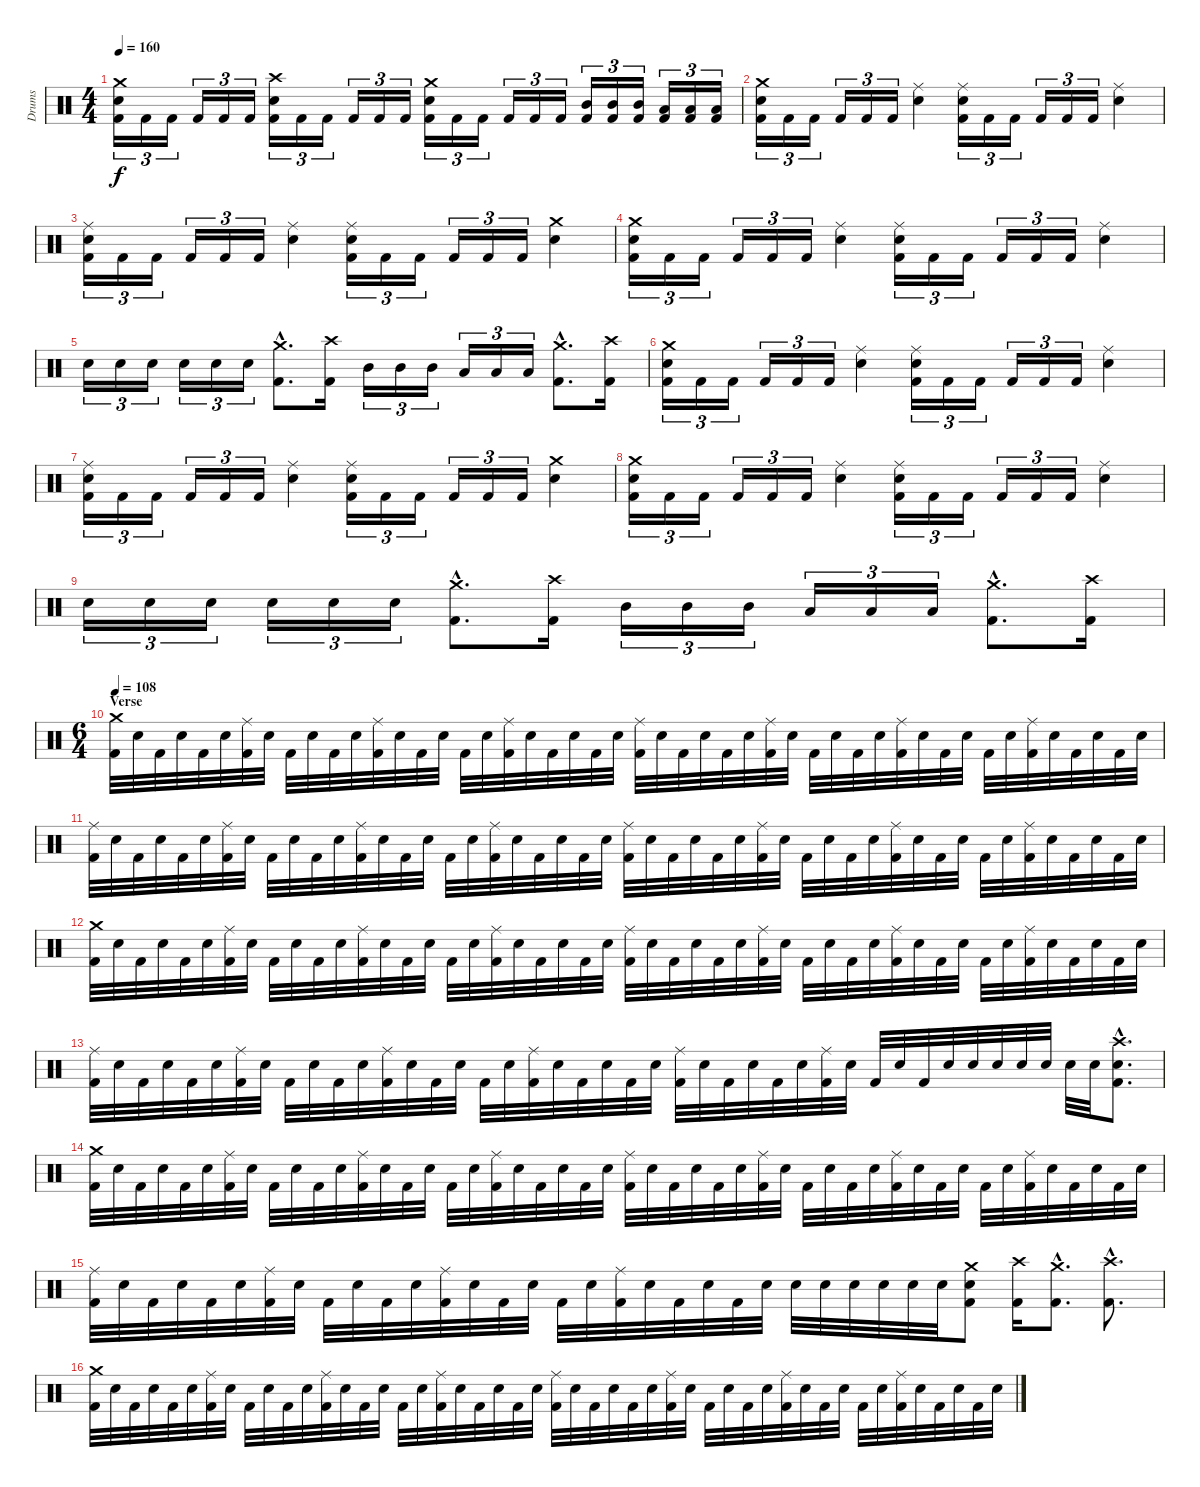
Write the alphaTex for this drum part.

\track ("Drums" "Drums") {instrument percussion}
\staff {score}
\articulation defaults
\ts (4 4)
\tempo 160
\clef neutral
\ks c
("Crash medium (hit)" "Electric Snare (hit)" "Kick (hit) 2").16{tu (3 2) dy f} "Kick (hit) 2".16{tu (3 2)} "Kick (hit) 2".16{tu (3 2)} "Kick (hit) 2".16{tu (3 2)} "Kick (hit) 2".16{tu (3 2)} "Kick (hit) 2".16{tu (3 2)} ("Crash high (hit)" "Electric Snare (hit)" "Kick (hit) 2").16{tu (3 2)} "Kick (hit) 2".16{tu (3 2)} "Kick (hit) 2".16{tu (3 2)} "Kick (hit) 2".16{tu (3 2)} "Kick (hit) 2".16{tu (3 2)} "Kick (hit) 2".16{tu (3 2)} ("Crash medium (hit)" "Electric Snare (hit)" "Kick (hit) 2").16{tu (3 2)} "Kick (hit) 2".16{tu (3 2)} "Kick (hit) 2".16{tu (3 2)} "Kick (hit) 2".16{tu (3 2)} "Kick (hit) 2".16{tu (3 2)} "Kick (hit) 2".16{tu (3 2)} ("Mid Tom (hit)" "Kick (hit) 2").16{tu (3 2)} ("Mid Tom (hit)" "Kick (hit) 2").16{tu (3 2)} ("Mid Tom (hit)" "Kick (hit) 2").16{tu (3 2)} ("Low Tom (hit)" "Kick (hit) 2").16{tu (3 2)} ("Low Tom (hit)" "Kick (hit) 2").16{tu (3 2)} ("Low Tom (hit)" "Kick (hit) 2").16{tu (3 2)} |
("Crash medium (hit)" "Electric Snare (hit)" "Kick (hit) 2").16{tu (3 2)} "Kick (hit) 2".16{tu (3 2)} "Kick (hit) 2".16{tu (3 2)} "Kick (hit) 2".16{tu (3 2)} "Kick (hit) 2".16{tu (3 2)} "Kick (hit) 2".16{tu (3 2)} ("Ride (middle)" "Electric Snare (hit)").4 ("Ride (middle)" "Electric Snare (hit)" "Kick (hit) 2").16{tu (3 2)} "Kick (hit) 2".16{tu (3 2)} "Kick (hit) 2".16{tu (3 2)} "Kick (hit) 2".16{tu (3 2)} "Kick (hit) 2".16{tu (3 2)} "Kick (hit) 2".16{tu (3 2)} ("Ride (middle)" "Electric Snare (hit)").4 |
("Ride (middle)" "Electric Snare (hit)" "Kick (hit) 2").16{tu (3 2)} "Kick (hit) 2".16{tu (3 2)} "Kick (hit) 2".16{tu (3 2)} "Kick (hit) 2".16{tu (3 2)} "Kick (hit) 2".16{tu (3 2)} "Kick (hit) 2".16{tu (3 2)} ("Ride (middle)" "Electric Snare (hit)").4 ("Ride (middle)" "Electric Snare (hit)" "Kick (hit) 2").16{tu (3 2)} "Kick (hit) 2".16{tu (3 2)} "Kick (hit) 2".16{tu (3 2)} "Kick (hit) 2".16{tu (3 2)} "Kick (hit) 2".16{tu (3 2)} "Kick (hit) 2".16{tu (3 2)} ("Crash medium (hit)" "Electric Snare (hit)").4 |
("Crash medium (hit)" "Electric Snare (hit)" "Kick (hit) 2").16{tu (3 2)} "Kick (hit) 2".16{tu (3 2)} "Kick (hit) 2".16{tu (3 2)} "Kick (hit) 2".16{tu (3 2)} "Kick (hit) 2".16{tu (3 2)} "Kick (hit) 2".16{tu (3 2)} ("Ride (middle)" "Electric Snare (hit)").4 ("Ride (middle)" "Electric Snare (hit)" "Kick (hit) 2").16{tu (3 2)} "Kick (hit) 2".16{tu (3 2)} "Kick (hit) 2".16{tu (3 2)} "Kick (hit) 2".16{tu (3 2)} "Kick (hit) 2".16{tu (3 2)} "Kick (hit) 2".16{tu (3 2)} ("Ride (middle)" "Electric Snare (hit)").4 |
"Electric Snare (hit)".16{tu (3 2)} "Electric Snare (hit)".16{tu (3 2)} "Electric Snare (hit)".16{tu (3 2)} "Electric Snare (hit)".16{tu (3 2)} "Electric Snare (hit)".16{tu (3 2)} "Electric Snare (hit)".16{tu (3 2)} ("Crash medium (hit)"{hac} "Kick (hit) 2"{hac}).8{d} ("Crash high (hit)" "Kick (hit) 2").16 "Mid Tom (hit)".16{tu (3 2)} "Mid Tom (hit)".16{tu (3 2)} "Mid Tom (hit)".16{tu (3 2)} "Low Tom (hit)".16{tu (3 2)} "Low Tom (hit)".16{tu (3 2)} "Low Tom (hit)".16{tu (3 2)} ("Crash medium (hit)"{hac} "Kick (hit) 2"{hac}).8{d} ("Crash high (hit)" "Kick (hit) 2").16 |
("Crash medium (hit)" "Electric Snare (hit)" "Kick (hit) 2").16{tu (3 2)} "Kick (hit) 2".16{tu (3 2)} "Kick (hit) 2".16{tu (3 2)} "Kick (hit) 2".16{tu (3 2)} "Kick (hit) 2".16{tu (3 2)} "Kick (hit) 2".16{tu (3 2)} ("Ride (middle)" "Electric Snare (hit)").4 ("Ride (middle)" "Electric Snare (hit)" "Kick (hit) 2").16{tu (3 2)} "Kick (hit) 2".16{tu (3 2)} "Kick (hit) 2".16{tu (3 2)} "Kick (hit) 2".16{tu (3 2)} "Kick (hit) 2".16{tu (3 2)} "Kick (hit) 2".16{tu (3 2)} ("Ride (middle)" "Electric Snare (hit)").4 |
("Ride (middle)" "Electric Snare (hit)" "Kick (hit) 2").16{tu (3 2)} "Kick (hit) 2".16{tu (3 2)} "Kick (hit) 2".16{tu (3 2)} "Kick (hit) 2".16{tu (3 2)} "Kick (hit) 2".16{tu (3 2)} "Kick (hit) 2".16{tu (3 2)} ("Ride (middle)" "Electric Snare (hit)").4 ("Ride (middle)" "Electric Snare (hit)" "Kick (hit) 2").16{tu (3 2)} "Kick (hit) 2".16{tu (3 2)} "Kick (hit) 2".16{tu (3 2)} "Kick (hit) 2".16{tu (3 2)} "Kick (hit) 2".16{tu (3 2)} "Kick (hit) 2".16{tu (3 2)} ("Crash medium (hit)" "Electric Snare (hit)").4 |
("Crash medium (hit)" "Electric Snare (hit)" "Kick (hit) 2").16{tu (3 2)} "Kick (hit) 2".16{tu (3 2)} "Kick (hit) 2".16{tu (3 2)} "Kick (hit) 2".16{tu (3 2)} "Kick (hit) 2".16{tu (3 2)} "Kick (hit) 2".16{tu (3 2)} ("Ride (middle)" "Electric Snare (hit)").4 ("Ride (middle)" "Electric Snare (hit)" "Kick (hit) 2").16{tu (3 2)} "Kick (hit) 2".16{tu (3 2)} "Kick (hit) 2".16{tu (3 2)} "Kick (hit) 2".16{tu (3 2)} "Kick (hit) 2".16{tu (3 2)} "Kick (hit) 2".16{tu (3 2)} ("Ride (middle)" "Electric Snare (hit)").4 |
"Electric Snare (hit)".16{tu (3 2)} "Electric Snare (hit)".16{tu (3 2)} "Electric Snare (hit)".16{tu (3 2)} "Electric Snare (hit)".16{tu (3 2)} "Electric Snare (hit)".16{tu (3 2)} "Electric Snare (hit)".16{tu (3 2)} ("Crash medium (hit)"{hac} "Kick (hit) 2"{hac}).8{d} ("Crash high (hit)" "Kick (hit) 2").16 "Mid Tom (hit)".16{tu (3 2)} "Mid Tom (hit)".16{tu (3 2)} "Mid Tom (hit)".16{tu (3 2)} "Low Tom (hit)".16{tu (3 2)} "Low Tom (hit)".16{tu (3 2)} "Low Tom (hit)".16{tu (3 2)} ("Crash medium (hit)"{hac} "Kick (hit) 2"{hac}).8{d} ("Crash high (hit)" "Kick (hit) 2").16 |
\ts (6 4)
\section ("" "Verse")
\tempo 108
("Crash medium (hit)" "Kick (hit) 2").32 "Electric Snare (hit)".32 "Kick (hit) 2".32 "Electric Snare (hit)".32 "Kick (hit) 2".32 "Electric Snare (hit)".32 ("Ride (middle)" "Kick (hit) 2").32 "Electric Snare (hit)".32 "Kick (hit) 2".32 "Electric Snare (hit)".32 "Kick (hit) 2".32 "Electric Snare (hit)".32 ("Ride (middle)" "Kick (hit) 2").32 "Electric Snare (hit)".32 "Kick (hit) 2".32 "Electric Snare (hit)".32 "Kick (hit) 2".32 "Electric Snare (hit)".32 ("Ride (middle)" "Kick (hit) 2").32 "Electric Snare (hit)".32 "Kick (hit) 2".32 "Electric Snare (hit)".32 "Kick (hit) 2".32 "Electric Snare (hit)".32 ("Ride (middle)" "Kick (hit) 2").32 "Electric Snare (hit)".32 "Kick (hit) 2".32 "Electric Snare (hit)".32 "Kick (hit) 2".32 "Electric Snare (hit)".32 ("Ride (middle)" "Kick (hit) 2").32 "Electric Snare (hit)".32 "Kick (hit) 2".32 "Electric Snare (hit)".32 "Kick (hit) 2".32 "Electric Snare (hit)".32 ("Ride (middle)" "Kick (hit) 2").32 "Electric Snare (hit)".32 "Kick (hit) 2".32 "Electric Snare (hit)".32 "Kick (hit) 2".32 "Electric Snare (hit)".32 ("Ride (middle)" "Kick (hit) 2").32 "Electric Snare (hit)".32 "Kick (hit) 2".32 "Electric Snare (hit)".32 "Kick (hit) 2".32 "Electric Snare (hit)".32 |
("Ride (middle)" "Kick (hit) 2").32 "Electric Snare (hit)".32 "Kick (hit) 2".32 "Electric Snare (hit)".32 "Kick (hit) 2".32 "Electric Snare (hit)".32 ("Ride (middle)" "Kick (hit) 2").32 "Electric Snare (hit)".32 "Kick (hit) 2".32 "Electric Snare (hit)".32 "Kick (hit) 2".32 "Electric Snare (hit)".32 ("Ride (middle)" "Kick (hit) 2").32 "Electric Snare (hit)".32 "Kick (hit) 2".32 "Electric Snare (hit)".32 "Kick (hit) 2".32 "Electric Snare (hit)".32 ("Ride (middle)" "Kick (hit) 2").32 "Electric Snare (hit)".32 "Kick (hit) 2".32 "Electric Snare (hit)".32 "Kick (hit) 2".32 "Electric Snare (hit)".32 ("Ride (middle)" "Kick (hit) 2").32 "Electric Snare (hit)".32 "Kick (hit) 2".32 "Electric Snare (hit)".32 "Kick (hit) 2".32 "Electric Snare (hit)".32 ("Ride (middle)" "Kick (hit) 2").32 "Electric Snare (hit)".32 "Kick (hit) 2".32 "Electric Snare (hit)".32 "Kick (hit) 2".32 "Electric Snare (hit)".32 ("Ride (middle)" "Kick (hit) 2").32 "Electric Snare (hit)".32 "Kick (hit) 2".32 "Electric Snare (hit)".32 "Kick (hit) 2".32 "Electric Snare (hit)".32 ("Ride (middle)" "Kick (hit) 2").32 "Electric Snare (hit)".32 "Kick (hit) 2".32 "Electric Snare (hit)".32 "Kick (hit) 2".32 "Electric Snare (hit)".32 |
("Crash medium (hit)" "Kick (hit) 2").32 "Electric Snare (hit)".32 "Kick (hit) 2".32 "Electric Snare (hit)".32 "Kick (hit) 2".32 "Electric Snare (hit)".32 ("Ride (middle)" "Kick (hit) 2").32 "Electric Snare (hit)".32 "Kick (hit) 2".32 "Electric Snare (hit)".32 "Kick (hit) 2".32 "Electric Snare (hit)".32 ("Ride (middle)" "Kick (hit) 2").32 "Electric Snare (hit)".32 "Kick (hit) 2".32 "Electric Snare (hit)".32 "Kick (hit) 2".32 "Electric Snare (hit)".32 ("Ride (middle)" "Kick (hit) 2").32 "Electric Snare (hit)".32 "Kick (hit) 2".32 "Electric Snare (hit)".32 "Kick (hit) 2".32 "Electric Snare (hit)".32 ("Ride (middle)" "Kick (hit) 2").32 "Electric Snare (hit)".32 "Kick (hit) 2".32 "Electric Snare (hit)".32 "Kick (hit) 2".32 "Electric Snare (hit)".32 ("Ride (middle)" "Kick (hit) 2").32 "Electric Snare (hit)".32 "Kick (hit) 2".32 "Electric Snare (hit)".32 "Kick (hit) 2".32 "Electric Snare (hit)".32 ("Ride (middle)" "Kick (hit) 2").32 "Electric Snare (hit)".32 "Kick (hit) 2".32 "Electric Snare (hit)".32 "Kick (hit) 2".32 "Electric Snare (hit)".32 ("Ride (middle)" "Kick (hit) 2").32 "Electric Snare (hit)".32 "Kick (hit) 2".32 "Electric Snare (hit)".32 "Kick (hit) 2".32 "Electric Snare (hit)".32 |
("Ride (middle)" "Kick (hit) 2").32 "Electric Snare (hit)".32 "Kick (hit) 2".32 "Electric Snare (hit)".32 "Kick (hit) 2".32 "Electric Snare (hit)".32 ("Ride (middle)" "Kick (hit) 2").32 "Electric Snare (hit)".32 "Kick (hit) 2".32 "Electric Snare (hit)".32 "Kick (hit) 2".32 "Electric Snare (hit)".32 ("Ride (middle)" "Kick (hit) 2").32 "Electric Snare (hit)".32 "Kick (hit) 2".32 "Electric Snare (hit)".32 "Kick (hit) 2".32 "Electric Snare (hit)".32 ("Ride (middle)" "Kick (hit) 2").32 "Electric Snare (hit)".32 "Kick (hit) 2".32 "Electric Snare (hit)".32 "Kick (hit) 2".32 "Electric Snare (hit)".32 ("Ride (middle)" "Kick (hit) 2").32 "Electric Snare (hit)".32 "Kick (hit) 2".32 "Electric Snare (hit)".32 "Kick (hit) 2".32 "Electric Snare (hit)".32 ("Ride (middle)" "Kick (hit) 2").32 "Electric Snare (hit)".32 "Kick (hit) 2".32 "Electric Snare (hit)".32 "Kick (hit) 2".32 "Electric Snare (hit)".32 "Electric Snare (hit)".32 "Electric Snare (hit)".32 "Electric Snare (hit)".32 "Electric Snare (hit)".32 "Electric Snare (hit)".32 "Electric Snare (hit)".32 ("Crash high (hit)"{hac} "Electric Snare (hit)"{hac} "Kick (hit) 2"{hac}).8{d} |
("Crash medium (hit)" "Kick (hit) 2").32 "Electric Snare (hit)".32 "Kick (hit) 2".32 "Electric Snare (hit)".32 "Kick (hit) 2".32 "Electric Snare (hit)".32 ("Ride (middle)" "Kick (hit) 2").32 "Electric Snare (hit)".32 "Kick (hit) 2".32 "Electric Snare (hit)".32 "Kick (hit) 2".32 "Electric Snare (hit)".32 ("Ride (middle)" "Kick (hit) 2").32 "Electric Snare (hit)".32 "Kick (hit) 2".32 "Electric Snare (hit)".32 "Kick (hit) 2".32 "Electric Snare (hit)".32 ("Ride (middle)" "Kick (hit) 2").32 "Electric Snare (hit)".32 "Kick (hit) 2".32 "Electric Snare (hit)".32 "Kick (hit) 2".32 "Electric Snare (hit)".32 ("Ride (middle)" "Kick (hit) 2").32 "Electric Snare (hit)".32 "Kick (hit) 2".32 "Electric Snare (hit)".32 "Kick (hit) 2".32 "Electric Snare (hit)".32 ("Ride (middle)" "Kick (hit) 2").32 "Electric Snare (hit)".32 "Kick (hit) 2".32 "Electric Snare (hit)".32 "Kick (hit) 2".32 "Electric Snare (hit)".32 ("Ride (middle)" "Kick (hit) 2").32 "Electric Snare (hit)".32 "Kick (hit) 2".32 "Electric Snare (hit)".32 "Kick (hit) 2".32 "Electric Snare (hit)".32 ("Ride (middle)" "Kick (hit) 2").32 "Electric Snare (hit)".32 "Kick (hit) 2".32 "Electric Snare (hit)".32 "Kick (hit) 2".32 "Electric Snare (hit)".32 |
("Ride (middle)" "Kick (hit) 2").32 "Electric Snare (hit)".32 "Kick (hit) 2".32 "Electric Snare (hit)".32 "Kick (hit) 2".32 "Electric Snare (hit)".32 ("Ride (middle)" "Kick (hit) 2").32 "Electric Snare (hit)".32 "Kick (hit) 2".32 "Electric Snare (hit)".32 "Kick (hit) 2".32 "Electric Snare (hit)".32 ("Ride (middle)" "Kick (hit) 2").32 "Electric Snare (hit)".32 "Kick (hit) 2".32 "Electric Snare (hit)".32 "Kick (hit) 2".32 "Electric Snare (hit)".32 ("Ride (middle)" "Kick (hit) 2").32 "Electric Snare (hit)".32 "Kick (hit) 2".32 "Electric Snare (hit)".32 "Kick (hit) 2".32 "Electric Snare (hit)".32 "Electric Snare (hit)".32 "Electric Snare (hit)".32 "Electric Snare (hit)".32 "Electric Snare (hit)".32 "Electric Snare (hit)".32 "Electric Snare (hit)".32 ("Crash medium (hit)" "Electric Snare (hit)" "Kick (hit) 2").8 ("Crash high (hit)" "Kick (hit) 2").16 ("Crash medium (hit)"{hac} "Kick (hit) 2"{hac}).8{d} ("Crash high (hit)"{hac} "Kick (hit) 2"{hac}).8{d} |
("Crash medium (hit)" "Kick (hit) 2").32 "Electric Snare (hit)".32 "Kick (hit) 2".32 "Electric Snare (hit)".32 "Kick (hit) 2".32 "Electric Snare (hit)".32 ("Ride (middle)" "Kick (hit) 2").32 "Electric Snare (hit)".32 "Kick (hit) 2".32 "Electric Snare (hit)".32 "Kick (hit) 2".32 "Electric Snare (hit)".32 ("Ride (middle)" "Kick (hit) 2").32 "Electric Snare (hit)".32 "Kick (hit) 2".32 "Electric Snare (hit)".32 "Kick (hit) 2".32 "Electric Snare (hit)".32 ("Ride (middle)" "Kick (hit) 2").32 "Electric Snare (hit)".32 "Kick (hit) 2".32 "Electric Snare (hit)".32 "Kick (hit) 2".32 "Electric Snare (hit)".32 ("Ride (middle)" "Kick (hit) 2").32 "Electric Snare (hit)".32 "Kick (hit) 2".32 "Electric Snare (hit)".32 "Kick (hit) 2".32 "Electric Snare (hit)".32 ("Ride (middle)" "Kick (hit) 2").32 "Electric Snare (hit)".32 "Kick (hit) 2".32 "Electric Snare (hit)".32 "Kick (hit) 2".32 "Electric Snare (hit)".32 ("Ride (middle)" "Kick (hit) 2").32 "Electric Snare (hit)".32 "Kick (hit) 2".32 "Electric Snare (hit)".32 "Kick (hit) 2".32 "Electric Snare (hit)".32 ("Ride (middle)" "Kick (hit) 2").32 "Electric Snare (hit)".32 "Kick (hit) 2".32 "Electric Snare (hit)".32 "Kick (hit) 2".32 "Electric Snare (hit)".32
